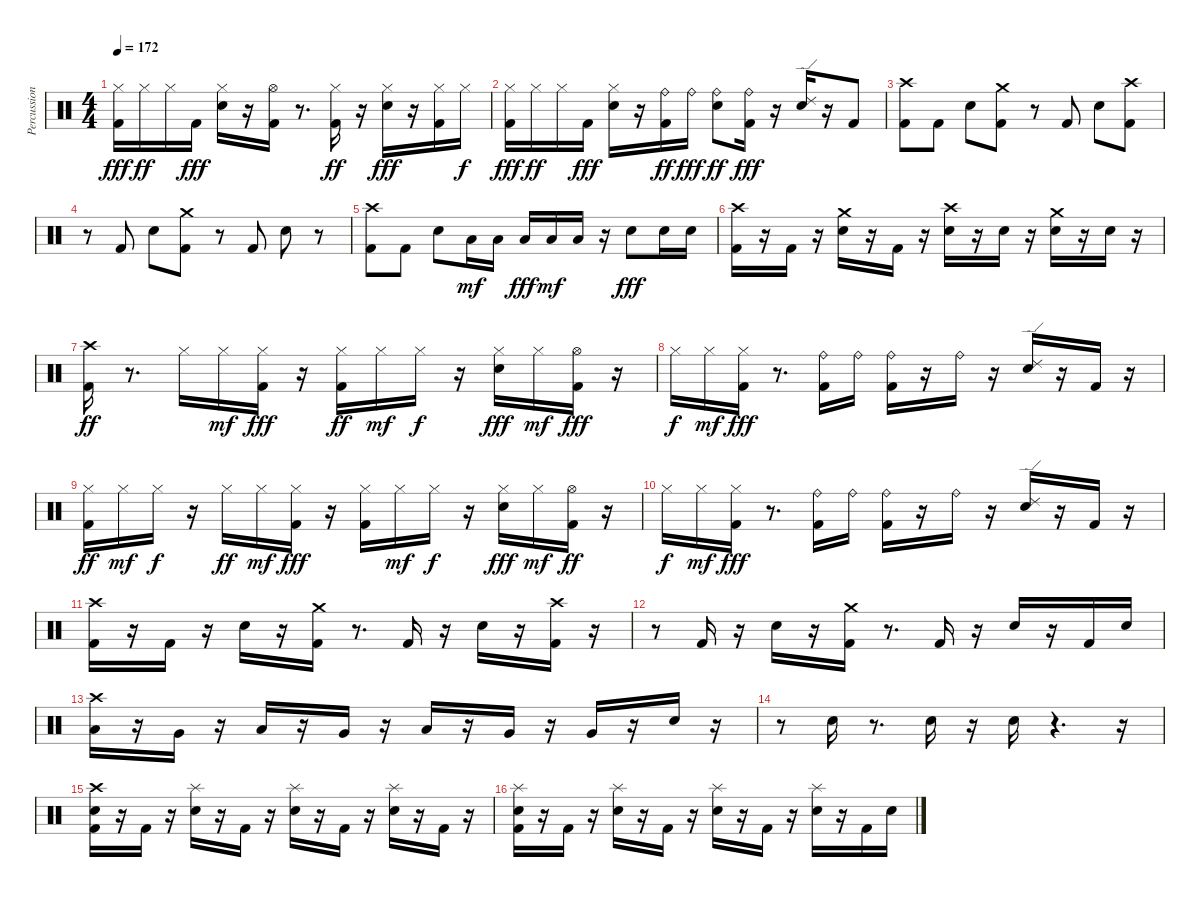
\track ("Percussion" "Percussion") {instrument percussion}
\staff {score}
\articulation defaults
\ts (4 4)
\tempo 172
\clef neutral
\ks c
("Hi-Hat (closed)" "Kick (hit) 2").16{dy fff} "Hi-Hat (closed)".16{dy ff} "Hi-Hat (closed)".16 "Kick (hit) 2".16{dy fff} ("Hi-Hat (closed)" "Snare (hit) 2").16 r.16 ("Hi-Hat (open)" "Kick (hit) 2").16 r.8{d} ("Kick (hit) 2" "Hi-Hat (closed)").16{dy ff} r.16 ("Hi-Hat (closed)" "Snare (hit) 2").16{dy fff} r.16 ("Hi-Hat (closed)" "Kick (hit) 2").16 "Hi-Hat (closed)".16{dy f} |
("Hi-Hat (closed)" "Kick (hit) 2").16{dy fff} "Hi-Hat (closed)".16{dy ff} "Hi-Hat (closed)".16 "Kick (hit) 2".16{dy fff} ("Hi-Hat (closed)" "Snare (hit) 2").16 r.16 ("Ride (bell)" "Kick (hit) 2").16{dy ff} "Ride (bell)".16{dy fff} ("Ride (bell)" "Snare (hit) 2").8{dy ff} ("Kick (hit) 2" "Ride (bell)").16{dy fff} r.16 ("Snare (hit) 2" "Ride (edge) 2").16 r.16 "Kick (hit) 2".8 |
("Kick (hit) 2" "Crash high (hit)").8 "Kick (hit) 2".8 "Snare (hit) 2".8 ("Kick (hit) 2" "Crash medium (hit)").8 r.8 "Kick (hit) 2".8 "Snare (hit) 2".8 ("Kick (hit) 2" "Crash high (hit)").8 |
r.8 "Kick (hit) 2".8 "Snare (hit) 2".8 ("Kick (hit) 2" "Crash medium (hit)").8 r.8 "Kick (hit) 2".8 "Snare (hit) 2".8 r.8 |
("Kick (hit) 2" "Crash high (hit)").8 "Kick (hit) 2".8 "Snare (hit) 2".8 "Low Floor Tom (hit)".16{dy mf} "Low Floor Tom (hit)".16 "Low Tom (hit)".16{dy fff} "Low Floor Tom (hit)".16{dy mf} "Low Floor Tom (hit)".16 r.16 "Snare (hit) 2".8{dy fff} "Snare (hit) 2".16 "Snare (hit) 2".16 |
("Kick (hit) 2" "Crash high (hit)").16 r.16 "Kick (hit) 2".16 r.16 ("Snare (hit) 2" "Crash medium (hit)").16 r.16 "Kick (hit) 2".16 r.16 ("Crash high (hit)" "Snare (hit) 2").16 r.16 "Snare (hit) 2".16 r.16 ("Snare (hit) 2" "Crash medium (hit)").16 r.16 "Snare (hit) 2".16 r.16 |
("Kick (hit) 2" "Crash high (hit)").16{dy ff} r.8{d} "Hi-Hat (closed)".16 "Hi-Hat (closed)".16{dy mf} ("Kick (hit) 2" "Hi-Hat (closed)").16{dy fff} r.16 ("Kick (hit) 2" "Hi-Hat (closed)").16{dy ff} "Hi-Hat (closed)".16{dy mf} "Hi-Hat (closed)".16{dy f} r.16 ("Snare (hit) 2" "Hi-Hat (closed)").16{dy fff} "Hi-Hat (closed)".16{dy mf} ("Hi-Hat (open)" "Kick (hit) 2").16{dy fff} r.16 |
"Hi-Hat (closed)".16{dy f} "Hi-Hat (closed)".16{dy mf} ("Kick (hit) 2" "Hi-Hat (closed)").16{dy fff} r.8{d} ("Ride (bell)" "Kick (hit) 2").16 "Ride (bell)".16 ("Ride (bell)" "Kick (hit) 2").16 r.16 "Ride (bell)".16 r.16 ("Ride (edge) 2" "Snare (hit) 2").16 r.16 "Kick (hit) 2".16 r.16 |
("Kick (hit) 2" "Hi-Hat (closed)").16{dy ff} "Hi-Hat (closed)".16{dy mf} "Hi-Hat (closed)".16{dy f} r.16 "Hi-Hat (closed)".16{dy ff} "Hi-Hat (closed)".16{dy mf} ("Kick (hit) 2" "Hi-Hat (closed)").16{dy fff} r.16 ("Hi-Hat (closed)" "Kick (hit) 2").16 "Hi-Hat (closed)".16{dy mf} "Hi-Hat (closed)".16{dy f} r.16 ("Snare (hit) 2" "Hi-Hat (closed)").16{dy fff} "Hi-Hat (closed)".16{dy mf} ("Kick (hit) 2" "Hi-Hat (open)").16{dy ff} r.16 |
"Hi-Hat (closed)".16{dy f} "Hi-Hat (closed)".16{dy mf} ("Hi-Hat (closed)" "Kick (hit) 2").16{dy fff} r.8{d} ("Ride (bell)" "Kick (hit) 2").16 "Ride (bell)".16 ("Ride (bell)" "Kick (hit) 2").16 r.16 "Ride (bell)".16 r.16 ("Ride (edge) 2" "Snare (hit) 2").16 r.16 "Kick (hit) 2".16 r.16 |
("Crash high (hit)" "Kick (hit) 2").16 r.16 "Kick (hit) 2".16 r.16 "Snare (hit) 2".16 r.16 ("Crash medium (hit)" "Kick (hit) 2").16 r.8{d} "Kick (hit) 2".16 r.16 "Snare (hit) 2".16 r.16 ("Crash high (hit)" "Kick (hit) 2").16 r.16 |
r.8 "Kick (hit) 2".16 r.16 "Snare (hit) 2".16 r.16 ("Crash medium (hit)" "Kick (hit) 2").16 r.8{d} "Kick (hit) 2".16 r.16 "Snare (hit) 2".16 r.16 "Kick (hit) 2".16 "Snare (hit) 2".16 |
("Low Tom (hit)" "Crash high (hit)").16 r.16 "Very Low Tom (hit)".16 r.16 "Low Tom (hit)".16 r.16 "Very Low Tom (hit)".16 r.16 "Low Tom (hit)".16 r.16 "Very Low Tom (hit)".16 r.16 "Very Low Tom (hit)".16 r.16 "Snare (hit) 2".16 r.16 |
r.8 "Snare (hit) 2".16 r.8{d} "Snare (hit) 2".16 r.16 "Snare (hit) 2".16 r.4{d} r.16 |
("Crash high (hit)" "Kick (hit) 2" "Snare (hit) 2").16 r.16 "Kick (hit) 2".16 r.16 ("Snare (hit) 2" "Splash (hit)").16 r.16 "Kick (hit) 2".16 r.16 ("Snare (hit) 2" "Splash (hit)").16 r.16 "Kick (hit) 2".16 r.16 ("Splash (hit)" "Snare (hit) 2").16 r.16 "Kick (hit) 2".16 r.16 |
("Snare (hit) 2" "Kick (hit) 2" "Splash (hit)").16 r.16 "Kick (hit) 2".16 r.16 ("Snare (hit) 2" "Splash (hit)").16 r.16 "Kick (hit) 2".16 r.16 ("Snare (hit) 2" "Splash (hit)").16 r.16 "Kick (hit) 2".16 r.16 ("Snare (hit) 2" "Splash (hit)").16 r.16 "Kick (hit) 2".16 "Snare (hit) 2".16
